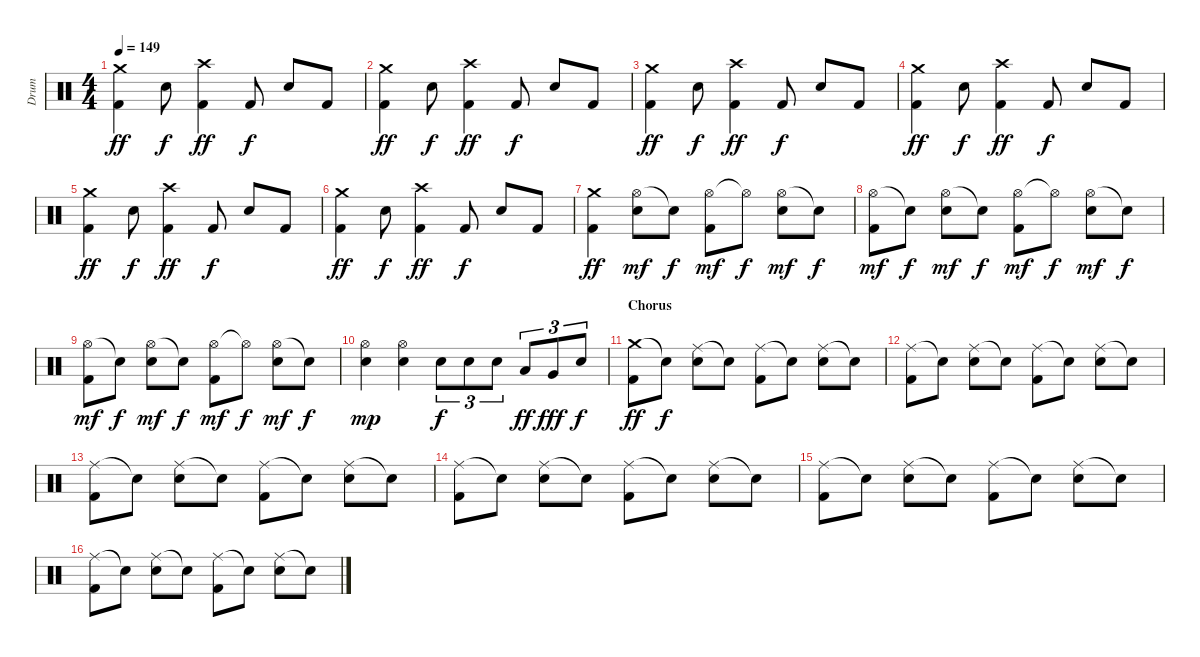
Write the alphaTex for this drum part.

\track ("Drum" "Drum") {instrument percussion}
\staff {score}
\articulation defaults
\ts (4 4)
\tempo 149
\clef neutral
\ks c
("Crash medium (hit)" "Kick (hit) 2").4{dy ff} "Snare (hit) 2".8{dy f} ("Crash high (hit)" "Kick (hit) 2").4{dy ff} "Kick (hit) 2".8{dy f} "Snare (hit) 2".8 "Kick (hit) 2".8 |
("Crash medium (hit)" "Kick (hit) 2").4{dy ff} "Snare (hit) 2".8{dy f} ("Crash high (hit)" "Kick (hit) 2").4{dy ff} "Kick (hit) 2".8{dy f} "Snare (hit) 2".8 "Kick (hit) 2".8 |
("Crash medium (hit)" "Kick (hit) 2").4{dy ff} "Snare (hit) 2".8{dy f} ("Crash high (hit)" "Kick (hit) 2").4{dy ff} "Kick (hit) 2".8{dy f} "Snare (hit) 2".8 "Kick (hit) 2".8 |
("Crash medium (hit)" "Kick (hit) 2").4{dy ff} "Snare (hit) 2".8{dy f} ("Crash high (hit)" "Kick (hit) 2").4{dy ff} "Kick (hit) 2".8{dy f} "Snare (hit) 2".8 "Kick (hit) 2".8 |
("Crash medium (hit)" "Kick (hit) 2").4{dy ff} "Snare (hit) 2".8{dy f} ("Crash high (hit)" "Kick (hit) 2").4{dy ff} "Kick (hit) 2".8{dy f} "Snare (hit) 2".8 "Kick (hit) 2".8 |
("Crash medium (hit)" "Kick (hit) 2").4{dy ff} "Snare (hit) 2".8{dy f} ("Crash high (hit)" "Kick (hit) 2").4{dy ff} "Kick (hit) 2".8{dy f} "Snare (hit) 2".8 "Kick (hit) 2".8 |
("Crash medium (hit)" "Kick (hit) 2").4{dy ff} ("Hi-Hat (open)" "Snare (hit) 2").8{dy mf} "Snare (hit)"{t}.8{dy f} ("Hi-Hat (open)" "Kick (hit) 2").8{dy mf} "Hi-Hat (open)"{t}.8{dy f} ("Hi-Hat (open)" "Snare (hit) 2").8{dy mf} "Snare (hit)"{t}.8{dy f} |
("Hi-Hat (open)" "Kick (hit) 2").8{dy mf} "Snare (hit)"{t}.8{dy f} ("Hi-Hat (open)" "Snare (hit) 2").8{dy mf} "Snare (hit)"{t}.8{dy f} ("Hi-Hat (open)" "Kick (hit) 2").8{dy mf} "Hi-Hat (open)"{t}.8{dy f} ("Hi-Hat (open)" "Snare (hit) 2").8{dy mf} "Snare (hit)"{t}.8{dy f} |
("Hi-Hat (open)" "Kick (hit) 2").8{dy mf} "Snare (hit)"{t}.8{dy f} ("Hi-Hat (open)" "Snare (hit) 2").8{dy mf} "Snare (hit)"{t}.8{dy f} ("Hi-Hat (open)" "Kick (hit) 2").8{dy mf} "Hi-Hat (open)"{t}.8{dy f} ("Hi-Hat (open)" "Snare (hit) 2").8{dy mf} "Snare (hit)"{t}.8{dy f} |
("Hi-Hat (open)" "Snare (hit) 2").4{dy mp} ("Hi-Hat (open)" "Snare (hit) 2").4 "Snare (hit) 2".8{tu (3 2) dy f} "Snare (hit) 2".8{tu (3 2)} "Snare (hit) 2".8{tu (3 2)} "Low Tom (hit)".8{tu (3 2) dy ff} "Very Low Tom (hit)".8{tu (3 2) dy fff} "Snare (hit) 2".8{tu (3 2) dy f} |
\section ("" "Chorus")
("Crash medium (hit)" "Kick (hit) 2").8{dy ff} "Snare (hit)"{t}.8{dy f} ("Ride (middle)" "Snare (hit) 2").8 "Snare (hit)"{t}.8 ("Ride (middle)" "Kick (hit) 2").8 "Snare (hit)"{t}.8 ("Ride (middle)" "Snare (hit) 2").8 "Snare (hit)"{t}.8 |
("Ride (middle)" "Kick (hit) 2").8 "Snare (hit)"{t}.8 ("Ride (middle)" "Snare (hit) 2").8 "Snare (hit)"{t}.8 ("Ride (middle)" "Kick (hit) 2").8 "Snare (hit)"{t}.8 ("Ride (middle)" "Snare (hit) 2").8 "Snare (hit)"{t}.8 |
("Ride (middle)" "Kick (hit) 2").8 "Snare (hit)"{t}.8 ("Ride (middle)" "Snare (hit) 2").8 "Snare (hit)"{t}.8 ("Ride (middle)" "Kick (hit) 2").8 "Snare (hit)"{t}.8 ("Ride (middle)" "Snare (hit) 2").8 "Snare (hit)"{t}.8 |
("Ride (middle)" "Kick (hit) 2").8 "Snare (hit)"{t}.8 ("Ride (middle)" "Snare (hit) 2").8 "Snare (hit)"{t}.8 ("Ride (middle)" "Kick (hit) 2").8 "Snare (hit)"{t}.8 ("Ride (middle)" "Snare (hit) 2").8 "Snare (hit)"{t}.8 |
("Ride (middle)" "Kick (hit) 2").8 "Snare (hit)"{t}.8 ("Ride (middle)" "Snare (hit) 2").8 "Snare (hit)"{t}.8 ("Ride (middle)" "Kick (hit) 2").8 "Snare (hit)"{t}.8 ("Ride (middle)" "Snare (hit) 2").8 "Snare (hit)"{t}.8 |
("Ride (middle)" "Kick (hit) 2").8 "Snare (hit)"{t}.8 ("Ride (middle)" "Snare (hit) 2").8 "Snare (hit)"{t}.8 ("Ride (middle)" "Kick (hit) 2").8 "Snare (hit)"{t}.8 ("Ride (middle)" "Snare (hit) 2").8 "Snare (hit)"{t}.8
